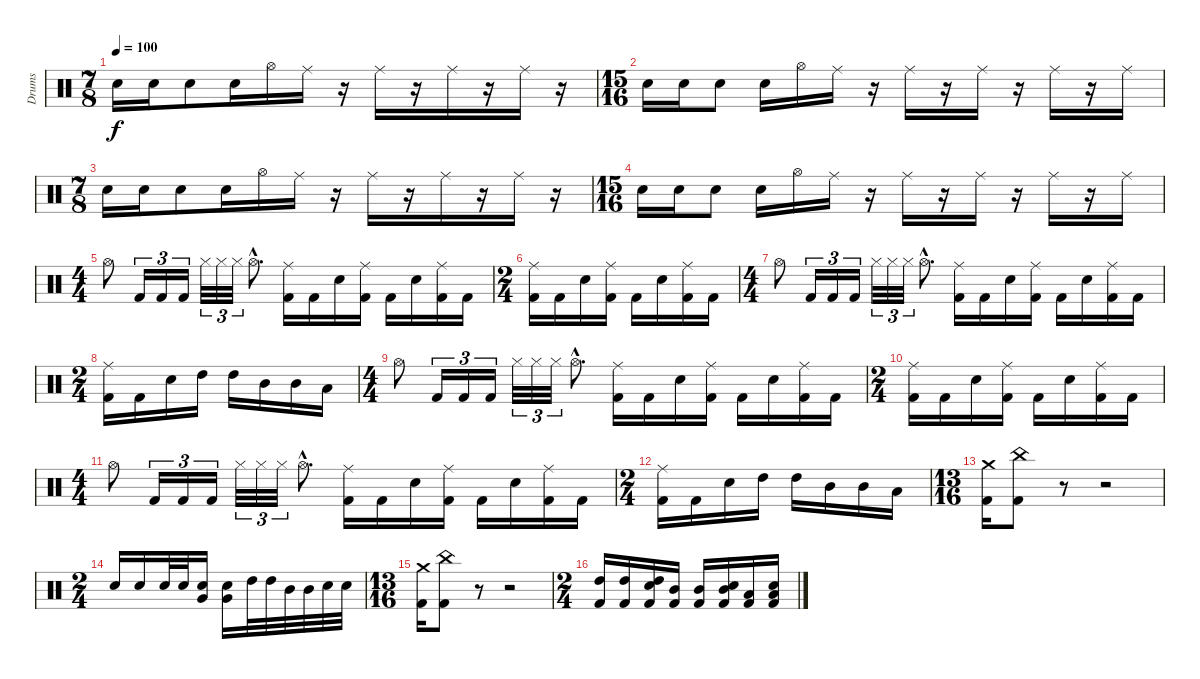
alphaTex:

\track ("Drums" "Drums") {instrument percussion}
\staff {score}
\articulation defaults
\ts (7 8)
\tempo 100
\clef neutral
\ks c "Snare (hit) 2".16{dy f} "Snare (hit) 2".16 "Snare (hit) 2".8 "Snare (hit) 2".16 "Hi-Hat (open)".16 "Ride (middle)".16
r.16 "Ride (middle)".16 r.16 "Ride (middle)".16 r.16 "Ride (middle)".16 r.16 |
\ts (15 16)
"Snare (hit) 2".16 "Snare (hit) 2".16 "Snare (hit) 2".8 "Snare (hit) 2".16 "Hi-Hat (open)".16 "Ride (middle)".16 r.16 "Ride (middle)".16 r.16 "Ride (middle)".16 r.16 "Ride (middle)".16 r.16 "Ride (middle)".16 |
\ts (7 8)
"Snare (hit) 2".16 "Snare (hit) 2".16 "Snare (hit) 2".8 "Snare (hit) 2".16 "Hi-Hat (open)".16 "Ride (middle)".16 r.16 "Ride (middle)".16 r.16 "Ride (middle)".16 r.16 "Ride (middle)".16 r.16 |
\ts (15 16)
"Snare (hit) 2".16 "Snare (hit) 2".16 "Snare (hit) 2".8 "Snare (hit) 2".16 "Hi-Hat (open)".16 "Ride (middle)".16 r.16 "Ride (middle)".16 r.16 "Ride (middle)".16 r.16 "Ride (middle)".16 r.16 "Ride (middle)".16 |
\ts (4 4)
"Hi-Hat (open)".8 "Kick (hit) 2".16{tu (3 2)} "Kick (hit) 2".16{tu (3 2)} "Kick (hit) 2".16{tu (3 2)} "Hi-Hat (closed)".32{tu (3 2)} "Hi-Hat (closed)".32{tu (3 2)} "Hi-Hat (closed)".32{tu (3 2)} "Hi-Hat (open)"{hac}.8{d} ("Ride (middle)" "Kick (hit) 2").16 "Kick (hit) 2".16 "Snare (hit) 2".16 ("Ride (middle)" "Kick (hit) 2").16 "Kick (hit) 2".16 "Snare (hit) 2".16 ("Ride (middle)" "Kick (hit) 2").16 "Kick (hit) 2".16 |
\ts (2 4)
("Ride (middle)" "Kick (hit) 2").16 "Kick (hit) 2".16 "Snare (hit) 2".16 ("Ride (middle)" "Kick (hit) 2").16 "Kick (hit) 2".16 "Snare (hit) 2".16 ("Ride (middle)" "Kick (hit) 2").16 "Kick (hit) 2".16 |
\ts (4 4)
"Hi-Hat (open)".8 "Kick (hit) 2".16{tu (3 2)} "Kick (hit) 2".16{tu (3 2)} "Kick (hit) 2".16{tu (3 2)} "Hi-Hat (closed)".32{tu (3 2)} "Hi-Hat (closed)".32{tu (3 2)} "Hi-Hat (closed)".32{tu (3 2)} "Hi-Hat (open)"{hac}.8{d} ("Ride (middle)" "Kick (hit) 2").16 "Kick (hit) 2".16 "Snare (hit) 2".16 ("Ride (middle)" "Kick (hit) 2").16 "Kick (hit) 2".16 "Snare (hit) 2".16 ("Ride (middle)" "Kick (hit) 2").16 "Kick (hit) 2".16 |
\ts (2 4)
("Ride (middle)" "Kick (hit) 2").16 "Kick (hit) 2".16 "Snare (hit) 2".16 "High Tom (hit)".16 "High Tom (hit)".16 "Mid Tom (hit)".16 "Mid Tom (hit)".16 "Low Tom (hit)".16 |
\ts (4 4)
"Hi-Hat (open)".8 "Kick (hit) 2".16{tu (3 2)} "Kick (hit) 2".16{tu (3 2)} "Kick (hit) 2".16{tu (3 2)} "Hi-Hat (closed)".32{tu (3 2)} "Hi-Hat (closed)".32{tu (3 2)} "Hi-Hat (closed)".32{tu (3 2)} "Hi-Hat (open)"{hac}.8{d} ("Ride (middle)" "Kick (hit) 2").16 "Kick (hit) 2".16 "Snare (hit) 2".16 ("Ride (middle)" "Kick (hit) 2").16 "Kick (hit) 2".16 "Snare (hit) 2".16 ("Ride (middle)" "Kick (hit) 2").16 "Kick (hit) 2".16 |
\ts (2 4)
("Ride (middle)" "Kick (hit) 2").16 "Kick (hit) 2".16 "Snare (hit) 2".16 ("Ride (middle)" "Kick (hit) 2").16 "Kick (hit) 2".16 "Snare (hit) 2".16 ("Ride (middle)" "Kick (hit) 2").16 "Kick (hit) 2".16 |
\ts (4 4)
"Hi-Hat (open)".8 "Kick (hit) 2".16{tu (3 2)} "Kick (hit) 2".16{tu (3 2)} "Kick (hit) 2".16{tu (3 2)} "Hi-Hat (closed)".32{tu (3 2)} "Hi-Hat (closed)".32{tu (3 2)} "Hi-Hat (closed)".32{tu (3 2)} "Hi-Hat (open)"{hac}.8{d} ("Ride (middle)" "Kick (hit) 2").16 "Kick (hit) 2".16 "Snare (hit) 2".16 ("Ride (middle)" "Kick (hit) 2").16 "Kick (hit) 2".16 "Snare (hit) 2".16 ("Ride (middle)" "Kick (hit) 2").16 "Kick (hit) 2".16 |
\ts (2 4)
("Ride (middle)" "Kick (hit) 2").16 "Kick (hit) 2".16 "Snare (hit) 2".16 "High Tom (hit)".16 "High Tom (hit)".16 "Mid Tom (hit)".16 "Mid Tom (hit)".16 "Low Tom (hit)".16 |
\ts (13 16)
("Crash medium (hit)" "Kick (hit) 2").16 ("China (hit)" "Kick (hit) 2").8 r.8 r.2 |
\ts (2 4)
"Snare (hit) 2".16 "Snare (hit) 2".16 "Snare (hit) 2".32 "Snare (hit) 2".32 ("Very Low Tom (hit)" "Snare (hit) 2").16 ("Very Low Tom (hit)" "Snare (hit) 2").16 "High Tom (hit)".32 "High Tom (hit)".32 "Mid Tom (hit)".32 "Mid Tom (hit)".32 "Snare (hit) 2".32 "Snare (hit) 2".32 |
\ts (13 16)
("Crash medium (hit)" "Kick (hit) 2").16 ("China (hit)" "Kick (hit) 2").8 r.8 r.2 |
\ts (2 4)
("High Tom (hit)" "Kick (hit) 2").16 ("High Tom (hit)" "Kick (hit) 2").16 ("High Tom (hit)" "Snare (hit) 2" "Kick (hit) 2").16 ("Mid Tom (hit)" "Kick (hit) 2").16 ("Mid Tom (hit)" "Kick (hit) 2").16 ("Mid Tom (hit)" "Snare (hit) 2" "Kick (hit) 2").16 ("Low Tom (hit)" "Kick (hit) 2").16 ("Low Tom (hit)" "Snare (hit) 2" "Kick (hit) 2").16
